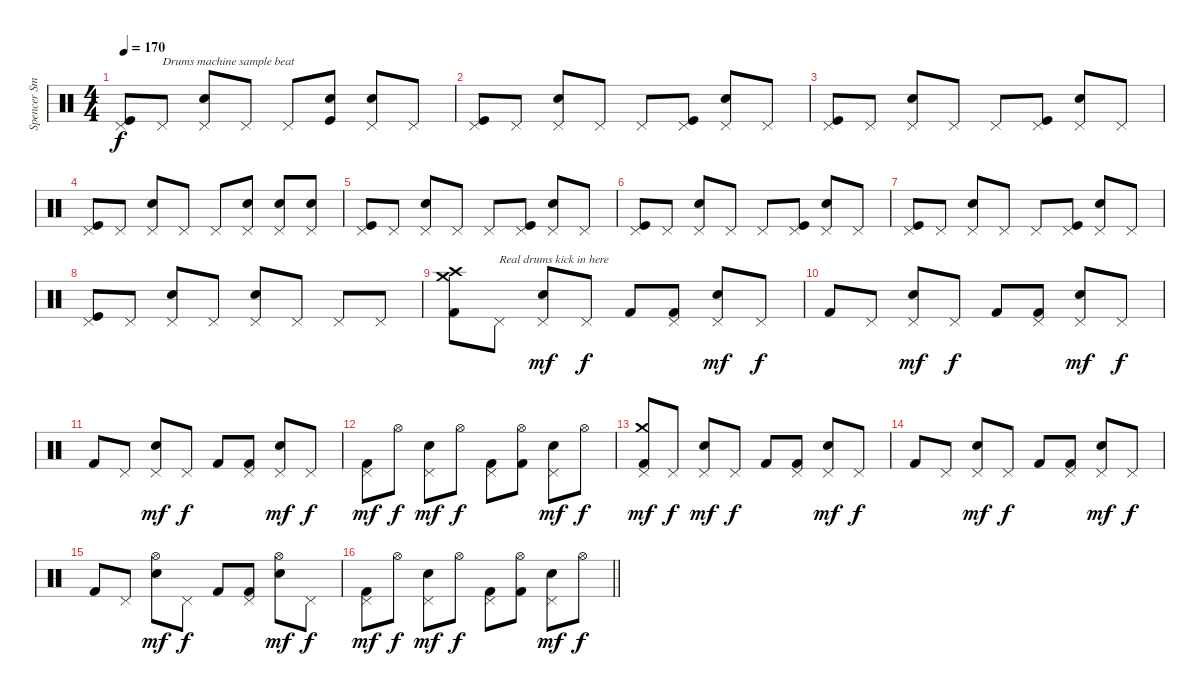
\track ("Spencer Smith (Drums)" "Spencer Sm") {instrument percussion}
\staff {score}
\articulation defaults
\ts (4 4)
\tempo 170
\clef neutral
\ks c
("Pedal Hi-Hat (hit)" "Kick (hit)").8{dy f volume 8} "Pedal Hi-Hat (hit)".8{txt "Drums machine sample beat"} ("Pedal Hi-Hat (hit)" "Snare (hit) 2").8 "Pedal Hi-Hat (hit)".8 "Pedal Hi-Hat (hit)".8 ("Snare (hit)" "Kick (hit)").8 ("Pedal Hi-Hat (hit)" "Snare (hit) 2").8 "Pedal Hi-Hat (hit)".8 |
("Pedal Hi-Hat (hit)" "Kick (hit)").8 "Pedal Hi-Hat (hit)".8 ("Pedal Hi-Hat (hit)" "Snare (hit) 2").8 "Pedal Hi-Hat (hit)".8 "Pedal Hi-Hat (hit)".8 ("Pedal Hi-Hat (hit)" "Kick (hit)").8 ("Pedal Hi-Hat (hit)" "Snare (hit) 2").8 "Pedal Hi-Hat (hit)".8 |
("Pedal Hi-Hat (hit)" "Kick (hit)").8 "Pedal Hi-Hat (hit)".8 ("Pedal Hi-Hat (hit)" "Snare (hit) 2").8 "Pedal Hi-Hat (hit)".8 "Pedal Hi-Hat (hit)".8 ("Pedal Hi-Hat (hit)" "Kick (hit)").8 ("Pedal Hi-Hat (hit)" "Snare (hit) 2").8 "Pedal Hi-Hat (hit)".8 |
("Pedal Hi-Hat (hit)" "Kick (hit)").8 "Pedal Hi-Hat (hit)".8 ("Pedal Hi-Hat (hit)" "Snare (hit) 2").8 "Pedal Hi-Hat (hit)".8 "Pedal Hi-Hat (hit)".8 ("Pedal Hi-Hat (hit)" "Snare (hit) 2").8 ("Pedal Hi-Hat (hit)" "Snare (hit) 2").8 ("Pedal Hi-Hat (hit)" "Snare (hit) 2").8 |
("Pedal Hi-Hat (hit)" "Kick (hit)").8 "Pedal Hi-Hat (hit)".8 ("Pedal Hi-Hat (hit)" "Snare (hit) 2").8 "Pedal Hi-Hat (hit)".8 "Pedal Hi-Hat (hit)".8 ("Pedal Hi-Hat (hit)" "Kick (hit)").8 ("Pedal Hi-Hat (hit)" "Snare (hit) 2").8 "Pedal Hi-Hat (hit)".8 |
("Pedal Hi-Hat (hit)" "Kick (hit)").8 "Pedal Hi-Hat (hit)".8 ("Pedal Hi-Hat (hit)" "Snare (hit) 2").8 "Pedal Hi-Hat (hit)".8 "Pedal Hi-Hat (hit)".8 ("Pedal Hi-Hat (hit)" "Kick (hit)").8 ("Pedal Hi-Hat (hit)" "Snare (hit) 2").8 "Pedal Hi-Hat (hit)".8 |
("Pedal Hi-Hat (hit)" "Kick (hit)").8 "Pedal Hi-Hat (hit)".8 ("Pedal Hi-Hat (hit)" "Snare (hit) 2").8 "Pedal Hi-Hat (hit)".8 "Pedal Hi-Hat (hit)".8 ("Pedal Hi-Hat (hit)" "Kick (hit)").8 ("Pedal Hi-Hat (hit)" "Snare (hit) 2").8 "Pedal Hi-Hat (hit)".8 |
("Pedal Hi-Hat (hit)" "Kick (hit)").8 "Pedal Hi-Hat (hit)".8 ("Pedal Hi-Hat (hit)" "Snare (hit) 2").8 "Pedal Hi-Hat (hit)".8 ("Pedal Hi-Hat (hit)" "Snare (hit) 2").8 "Pedal Hi-Hat (hit)".8 "Pedal Hi-Hat (hit)".8 "Pedal Hi-Hat (hit)".8 |
("Crash high (hit)" "Crash medium (hit)" "Kick (hit) 2").8{volume 16} "Pedal Hi-Hat (hit)".8{txt "Real drums kick in here"} ("Pedal Hi-Hat (hit)" "Electric Snare (hit)").8{dy mf} "Pedal Hi-Hat (hit)".8{dy f} "Kick (hit) 2".8 ("Pedal Hi-Hat (hit)" "Kick (hit) 2").8 ("Pedal Hi-Hat (hit)" "Electric Snare (hit)").8{dy mf} "Pedal Hi-Hat (hit)".8{dy f} |
"Kick (hit) 2".8 "Pedal Hi-Hat (hit)".8 ("Pedal Hi-Hat (hit)" "Electric Snare (hit)").8{dy mf} "Pedal Hi-Hat (hit)".8{dy f} "Kick (hit) 2".8 ("Pedal Hi-Hat (hit)" "Kick (hit) 2").8 ("Pedal Hi-Hat (hit)" "Electric Snare (hit)").8{dy mf} "Pedal Hi-Hat (hit)".8{dy f} |
"Kick (hit) 2".8 "Pedal Hi-Hat (hit)".8 ("Pedal Hi-Hat (hit)" "Electric Snare (hit)").8{dy mf} "Pedal Hi-Hat (hit)".8{dy f} "Kick (hit) 2".8 ("Pedal Hi-Hat (hit)" "Kick (hit) 2").8 ("Pedal Hi-Hat (hit)" "Electric Snare (hit)").8{dy mf} "Pedal Hi-Hat (hit)".8{dy f} |
("Pedal Hi-Hat (hit)" "Kick (hit) 2").8{dy mf} "Hi-Hat (open)".8{dy f} ("Pedal Hi-Hat (hit)" "Electric Snare (hit)").8{dy mf} "Hi-Hat (open)".8{dy f} ("Pedal Hi-Hat (hit)" "Kick (hit) 2").8 ("Hi-Hat (open)" "Kick (hit) 2").8 ("Pedal Hi-Hat (hit)" "Electric Snare (hit)").8{dy mf} "Hi-Hat (open)".8{dy f} |
("Crash medium (hit)" "Pedal Hi-Hat (hit)" "Kick (hit) 2").8{dy mf} "Pedal Hi-Hat (hit)".8{dy f} ("Pedal Hi-Hat (hit)" "Electric Snare (hit)").8{dy mf} "Pedal Hi-Hat (hit)".8{dy f} "Kick (hit) 2".8 ("Pedal Hi-Hat (hit)" "Kick (hit) 2").8 ("Pedal Hi-Hat (hit)" "Electric Snare (hit)").8{dy mf} "Pedal Hi-Hat (hit)".8{dy f} |
"Kick (hit) 2".8 "Pedal Hi-Hat (hit)".8 ("Pedal Hi-Hat (hit)" "Electric Snare (hit)").8{dy mf} "Pedal Hi-Hat (hit)".8{dy f} "Kick (hit) 2".8 ("Pedal Hi-Hat (hit)" "Kick (hit) 2").8 ("Pedal Hi-Hat (hit)" "Electric Snare (hit)").8{dy mf} "Pedal Hi-Hat (hit)".8{dy f} |
"Kick (hit) 2".8 "Pedal Hi-Hat (hit)".8 ("Hi-Hat (open)" "Electric Snare (hit)").8{dy mf} "Pedal Hi-Hat (hit)".8{dy f} "Kick (hit) 2".8 ("Pedal Hi-Hat (hit)" "Kick (hit) 2").8 ("Hi-Hat (open)" "Electric Snare (hit)").8{dy mf} "Pedal Hi-Hat (hit)".8{dy f} |
\barLineRight lightlight
("Pedal Hi-Hat (hit)" "Kick (hit) 2").8{dy mf} "Hi-Hat (open)".8{dy f} ("Pedal Hi-Hat (hit)" "Electric Snare (hit)").8{dy mf} "Hi-Hat (open)".8{dy f} ("Pedal Hi-Hat (hit)" "Kick (hit) 2").8 ("Hi-Hat (open)" "Kick (hit) 2").8 ("Pedal Hi-Hat (hit)" "Electric Snare (hit)").8{dy mf} "Hi-Hat (open)".8{dy f}
